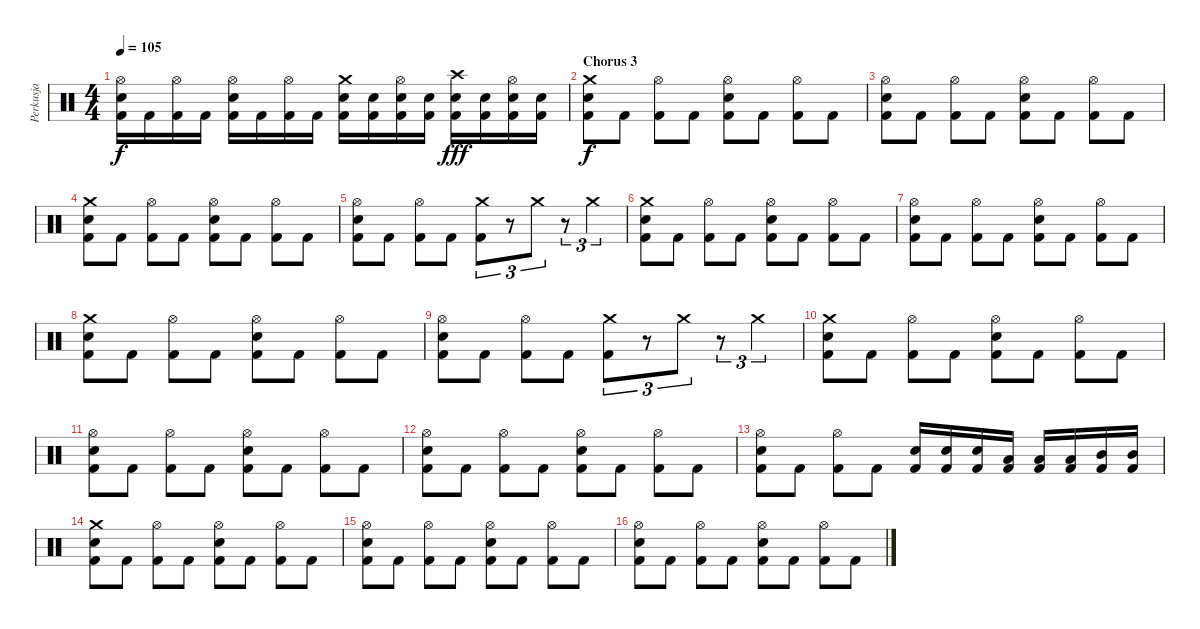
\track ("Perkusja" "Perkusja") {instrument percussion}
\staff {score}
\articulation defaults
\ts (4 4)
\tempo 105
\clef neutral
\ks c
("Kick (hit) 2" "Snare (hit) 2" "Hi-Hat (open)").16{dy f} "Kick (hit) 2".16 ("Kick (hit) 2" "Hi-Hat (open)").16 "Kick (hit) 2".16 ("Kick (hit) 2" "Snare (hit) 2" "Hi-Hat (open)").16 "Kick (hit) 2".16 ("Kick (hit) 2" "Hi-Hat (open)").16 "Kick (hit) 2".16 ("Kick (hit) 2" "Snare (hit) 2" "Crash medium (hit)").16 ("Kick (hit) 2" "Snare (hit) 2").16 ("Kick (hit) 2" "Snare (hit) 2" "Hi-Hat (open)").16 ("Kick (hit) 2" "Snare (hit) 2").16 ("Kick (hit) 2" "Electric Snare (hit)" "Crash high (hit)").16{dy fff} ("Kick (hit) 2" "Electric Snare (hit)").16 ("Kick (hit) 2" "Electric Snare (hit)" "Hi-Hat (open)").16 ("Kick (hit) 2" "Electric Snare (hit)").16 |
\section ("" "Chorus 3")
("Kick (hit) 2" "Snare (hit) 2" "Crash medium (hit)").8{dy f} "Kick (hit) 2".8 ("Kick (hit) 2" "Hi-Hat (open)").8 "Kick (hit) 2".8 ("Kick (hit) 2" "Snare (hit) 2" "Hi-Hat (open)").8 "Kick (hit) 2".8 ("Kick (hit) 2" "Hi-Hat (open)").8 "Kick (hit) 2".8 |
("Kick (hit) 2" "Snare (hit) 2" "Hi-Hat (open)").8 "Kick (hit) 2".8 ("Kick (hit) 2" "Hi-Hat (open)").8 "Kick (hit) 2".8 ("Kick (hit) 2" "Snare (hit) 2" "Hi-Hat (open)").8 "Kick (hit) 2".8 ("Kick (hit) 2" "Hi-Hat (open)").8 "Kick (hit) 2".8 |
("Kick (hit) 2" "Snare (hit) 2" "Crash medium (hit)").8 "Kick (hit) 2".8 ("Kick (hit) 2" "Hi-Hat (open)").8 "Kick (hit) 2".8 ("Kick (hit) 2" "Snare (hit) 2" "Hi-Hat (open)").8 "Kick (hit) 2".8 ("Kick (hit) 2" "Hi-Hat (open)").8 "Kick (hit) 2".8 |
("Kick (hit) 2" "Snare (hit) 2" "Hi-Hat (open)").8 "Kick (hit) 2".8 ("Kick (hit) 2" "Hi-Hat (open)").8 "Kick (hit) 2".8 ("Kick (hit) 2" "Crash medium (hit)").8{tu (3 2)} r.8{tu (3 2)} "Crash medium (hit)".8{tu (3 2)} r.8{tu (3 2)} "Crash medium (hit)".4{tu (3 2)} |
("Kick (hit) 2" "Snare (hit) 2" "Crash medium (hit)").8 "Kick (hit) 2".8 ("Kick (hit) 2" "Hi-Hat (open)").8 "Kick (hit) 2".8 ("Kick (hit) 2" "Snare (hit) 2" "Hi-Hat (open)").8 "Kick (hit) 2".8 ("Kick (hit) 2" "Hi-Hat (open)").8 "Kick (hit) 2".8 |
("Kick (hit) 2" "Snare (hit) 2" "Hi-Hat (open)").8 "Kick (hit) 2".8 ("Kick (hit) 2" "Hi-Hat (open)").8 "Kick (hit) 2".8 ("Kick (hit) 2" "Snare (hit) 2" "Hi-Hat (open)").8 "Kick (hit) 2".8 ("Kick (hit) 2" "Hi-Hat (open)").8 "Kick (hit) 2".8 |
("Kick (hit) 2" "Snare (hit) 2" "Crash medium (hit)").8 "Kick (hit) 2".8 ("Kick (hit) 2" "Hi-Hat (open)").8 "Kick (hit) 2".8 ("Kick (hit) 2" "Snare (hit) 2" "Hi-Hat (open)").8 "Kick (hit) 2".8 ("Kick (hit) 2" "Hi-Hat (open)").8 "Kick (hit) 2".8 |
("Kick (hit) 2" "Snare (hit) 2" "Hi-Hat (open)").8 "Kick (hit) 2".8 ("Kick (hit) 2" "Hi-Hat (open)").8 "Kick (hit) 2".8 ("Kick (hit) 2" "Crash medium (hit)").8{tu (3 2)} r.8{tu (3 2)} "Crash medium (hit)".8{tu (3 2)} r.8{tu (3 2)} "Crash medium (hit)".4{tu (3 2)} |
("Kick (hit) 2" "Snare (hit) 2" "Crash medium (hit)").8 "Kick (hit) 2".8 ("Kick (hit) 2" "Hi-Hat (open)").8 "Kick (hit) 2".8 ("Kick (hit) 2" "Snare (hit) 2" "Hi-Hat (open)").8 "Kick (hit) 2".8 ("Kick (hit) 2" "Hi-Hat (open)").8 "Kick (hit) 2".8 |
("Kick (hit) 2" "Snare (hit) 2" "Hi-Hat (open)").8 "Kick (hit) 2".8 ("Kick (hit) 2" "Hi-Hat (open)").8 "Kick (hit) 2".8 ("Kick (hit) 2" "Snare (hit) 2" "Hi-Hat (open)").8 "Kick (hit) 2".8 ("Kick (hit) 2" "Hi-Hat (open)").8 "Kick (hit) 2".8 |
("Kick (hit) 2" "Snare (hit) 2" "Hi-Hat (open)").8 "Kick (hit) 2".8 ("Kick (hit) 2" "Hi-Hat (open)").8 "Kick (hit) 2".8 ("Kick (hit) 2" "Snare (hit) 2" "Hi-Hat (open)").8 "Kick (hit) 2".8 ("Kick (hit) 2" "Hi-Hat (open)").8 "Kick (hit) 2".8 |
("Kick (hit) 2" "Snare (hit) 2" "Hi-Hat (open)").8 "Kick (hit) 2".8 ("Kick (hit) 2" "Hi-Hat (open)").8 "Kick (hit) 2".8 ("Kick (hit) 2" "Snare (hit) 2").16 ("Kick (hit) 2" "Snare (hit) 2").16 ("Kick (hit) 2" "Snare (hit) 2").16 ("Kick (hit) 2" "Low Tom (hit)").16 ("Kick (hit) 2" "Low Tom (hit)").16 ("Kick (hit) 2" "Low Tom (hit)").16 ("Kick (hit) 2" "Mid Tom (hit)").16 ("Kick (hit) 2" "Mid Tom (hit)").16 |
("Kick (hit) 2" "Snare (hit) 2" "Crash medium (hit)").8 "Kick (hit) 2".8 ("Kick (hit) 2" "Hi-Hat (open)").8 "Kick (hit) 2".8 ("Kick (hit) 2" "Snare (hit) 2" "Hi-Hat (open)").8 "Kick (hit) 2".8 ("Kick (hit) 2" "Hi-Hat (open)").8 "Kick (hit) 2".8 |
("Kick (hit) 2" "Snare (hit) 2" "Hi-Hat (open)").8 "Kick (hit) 2".8 ("Kick (hit) 2" "Hi-Hat (open)").8 "Kick (hit) 2".8 ("Kick (hit) 2" "Snare (hit) 2" "Hi-Hat (open)").8 "Kick (hit) 2".8 ("Kick (hit) 2" "Hi-Hat (open)").8 "Kick (hit) 2".8 |
("Kick (hit) 2" "Snare (hit) 2" "Hi-Hat (open)").8 "Kick (hit) 2".8 ("Kick (hit) 2" "Hi-Hat (open)").8 "Kick (hit) 2".8 ("Kick (hit) 2" "Snare (hit) 2" "Hi-Hat (open)").8 "Kick (hit) 2".8 ("Kick (hit) 2" "Hi-Hat (open)").8 "Kick (hit) 2".8
